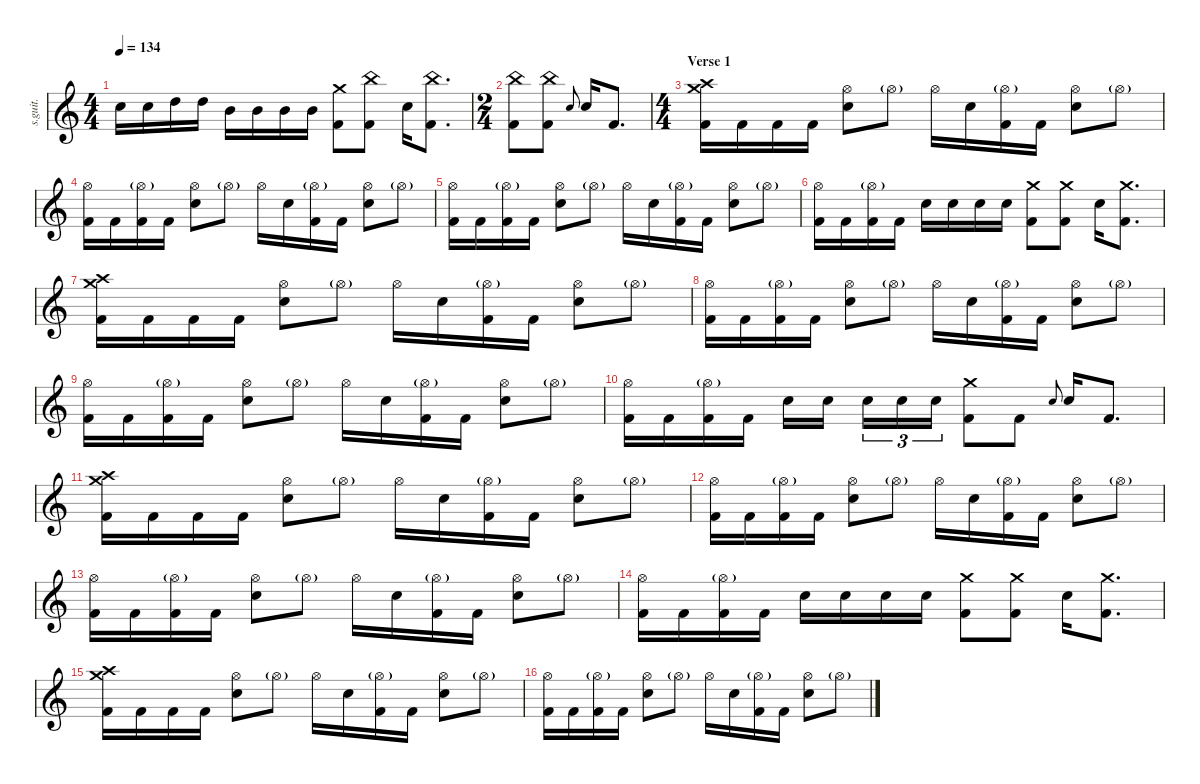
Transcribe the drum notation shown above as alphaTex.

\defaultSystemsLayout 4
\hideDynamics
\bracketExtendMode nobrackets
\track ("Joey Jordison RIP" "s.guit.") {instrument percussion}
\staff {score}
\articulation defaults
\ts (4 4)
\tempo 134
\clef g2
\ks c "Snare (hit) 2".16{dy fff} "Snare (hit) 2".16 "High Tom (hit)".16 "High Tom (hit)".16 "Mid Tom (hit)".16 "Mid Tom (hit)".16 "Mid Tom (hit)".16 "Mid Tom (hit)".16
("Crash medium (hit)" "Kick (hit) 2").8 ("China (hit)" "Kick (hit) 2").8 "Snare (hit) 2".16 ("China (hit)" "Kick (hit) 2").8{d} |
\ts (2 4)
\beaming (8 2 2 2 2)
("China (hit)" "Kick (hit) 2").8 ("China (hit)" "Kick (hit) 2").8 "Snare (hit) 2".8{gr onbeat} "Snare (hit) 2".16 "Kick (hit) 2".8{d} |
\ts (4 4)
\beaming (8 2 2 2 2)
\section ("" "Verse 1")
("Crash high (hit)" "Crash medium (hit)" "Kick (hit) 2").16 "Kick (hit) 2".16 "Kick (hit) 2".16 "Kick (hit) 2".16 ("Hi-Hat (open)" "Snare (hit) 2").8 "Hi-Hat (open)"{g}.8 "Hi-Hat (open)".16 "Snare (hit) 2".16 ("Hi-Hat (open)"{g} "Kick (hit) 2").16 "Kick (hit) 2".16 ("Hi-Hat (open)" "Snare (hit) 2").8 "Hi-Hat (open)"{g}.8 |
("Hi-Hat (open)" "Kick (hit) 2").16 "Kick (hit) 2".16 ("Hi-Hat (open)"{g} "Kick (hit) 2").16 "Kick (hit) 2".16 ("Hi-Hat (open)" "Snare (hit) 2").8 "Hi-Hat (open)"{g}.8 "Hi-Hat (open)".16 "Snare (hit) 2".16 ("Hi-Hat (open)"{g} "Kick (hit) 2").16 "Kick (hit) 2".16 ("Hi-Hat (open)" "Snare (hit) 2").8 "Hi-Hat (open)"{g}.8 |
("Hi-Hat (open)" "Kick (hit) 2").16 "Kick (hit) 2".16 ("Hi-Hat (open)"{g} "Kick (hit) 2").16 "Kick (hit) 2".16 ("Hi-Hat (open)" "Snare (hit) 2").8 "Hi-Hat (open)"{g}.8 "Hi-Hat (open)".16 "Snare (hit) 2".16 ("Hi-Hat (open)"{g} "Kick (hit) 2").16 "Kick (hit) 2".16 ("Hi-Hat (open)" "Snare (hit) 2").8 "Hi-Hat (open)"{g}.8 |
("Hi-Hat (open)" "Kick (hit) 2").16 "Kick (hit) 2".16 ("Hi-Hat (open)"{g} "Kick (hit) 2").16 "Kick (hit) 2".16 "Snare (hit) 2".16 "Snare (hit) 2".16 "Snare (hit) 2".16 "Snare (hit) 2".16 ("Crash medium (hit)" "Kick (hit) 2").8 ("Crash medium (hit)" "Kick (hit) 2").8 "Snare (hit) 2".16 ("Crash medium (hit)" "Kick (hit) 2").8{d} |
("Crash high (hit)" "Crash medium (hit)" "Kick (hit) 2").16 "Kick (hit) 2".16 "Kick (hit) 2".16 "Kick (hit) 2".16 ("Hi-Hat (open)" "Snare (hit) 2").8 "Hi-Hat (open)"{g}.8 "Hi-Hat (open)".16 "Snare (hit) 2".16 ("Hi-Hat (open)"{g} "Kick (hit) 2").16 "Kick (hit) 2".16 ("Hi-Hat (open)" "Snare (hit) 2").8 "Hi-Hat (open)"{g}.8 |
("Hi-Hat (open)" "Kick (hit) 2").16 "Kick (hit) 2".16 ("Hi-Hat (open)"{g} "Kick (hit) 2").16 "Kick (hit) 2".16 ("Hi-Hat (open)" "Snare (hit) 2").8 "Hi-Hat (open)"{g}.8 "Hi-Hat (open)".16 "Snare (hit) 2".16 ("Hi-Hat (open)"{g} "Kick (hit) 2").16 "Kick (hit) 2".16 ("Hi-Hat (open)" "Snare (hit) 2").8 "Hi-Hat (open)"{g}.8 |
("Hi-Hat (open)" "Kick (hit) 2").16 "Kick (hit) 2".16 ("Hi-Hat (open)"{g} "Kick (hit) 2").16 "Kick (hit) 2".16 ("Hi-Hat (open)" "Snare (hit) 2").8 "Hi-Hat (open)"{g}.8 "Hi-Hat (open)".16 "Snare (hit) 2".16 ("Hi-Hat (open)"{g} "Kick (hit) 2").16 "Kick (hit) 2".16 ("Hi-Hat (open)" "Snare (hit) 2").8 "Hi-Hat (open)"{g}.8 |
("Hi-Hat (open)" "Kick (hit) 2").16 "Kick (hit) 2".16 ("Hi-Hat (open)"{g} "Kick (hit) 2").16 "Kick (hit) 2".16 "Snare (hit) 2".16 "Snare (hit) 2".16 "Snare (hit) 2".16{tu (3 2)} "Snare (hit) 2".16{tu (3 2)} "Snare (hit) 2".16{tu (3 2)} ("Crash medium (hit)" "Kick (hit) 2").8 "Kick (hit) 2".8 "Snare (hit) 2".8{gr onbeat} "Snare (hit) 2".16 "Kick (hit) 2".8{d} |
("Crash high (hit)" "Crash medium (hit)" "Kick (hit) 2").16 "Kick (hit) 2".16 "Kick (hit) 2".16 "Kick (hit) 2".16 ("Hi-Hat (open)" "Snare (hit) 2").8 "Hi-Hat (open)"{g}.8 "Hi-Hat (open)".16 "Snare (hit) 2".16 ("Hi-Hat (open)"{g} "Kick (hit) 2").16 "Kick (hit) 2".16 ("Hi-Hat (open)" "Snare (hit) 2").8 "Hi-Hat (open)"{g}.8 |
("Hi-Hat (open)" "Kick (hit) 2").16 "Kick (hit) 2".16 ("Hi-Hat (open)"{g} "Kick (hit) 2").16 "Kick (hit) 2".16 ("Hi-Hat (open)" "Snare (hit) 2").8 "Hi-Hat (open)"{g}.8 "Hi-Hat (open)".16 "Snare (hit) 2".16 ("Hi-Hat (open)"{g} "Kick (hit) 2").16 "Kick (hit) 2".16 ("Hi-Hat (open)" "Snare (hit) 2").8 "Hi-Hat (open)"{g}.8 |
("Hi-Hat (open)" "Kick (hit) 2").16 "Kick (hit) 2".16 ("Hi-Hat (open)"{g} "Kick (hit) 2").16 "Kick (hit) 2".16 ("Hi-Hat (open)" "Snare (hit) 2").8 "Hi-Hat (open)"{g}.8 "Hi-Hat (open)".16 "Snare (hit) 2".16 ("Hi-Hat (open)"{g} "Kick (hit) 2").16 "Kick (hit) 2".16 ("Hi-Hat (open)" "Snare (hit) 2").8 "Hi-Hat (open)"{g}.8 |
("Hi-Hat (open)" "Kick (hit) 2").16 "Kick (hit) 2".16 ("Hi-Hat (open)"{g} "Kick (hit) 2").16 "Kick (hit) 2".16 "Snare (hit) 2".16 "Snare (hit) 2".16 "Snare (hit) 2".16 "Snare (hit) 2".16 ("Crash medium (hit)" "Kick (hit) 2").8 ("Crash medium (hit)" "Kick (hit) 2").8 "Snare (hit) 2".16 ("Crash medium (hit)" "Kick (hit) 2").8{d} |
("Crash high (hit)" "Crash medium (hit)" "Kick (hit) 2").16 "Kick (hit) 2".16 "Kick (hit) 2".16 "Kick (hit) 2".16 ("Hi-Hat (open)" "Snare (hit) 2").8 "Hi-Hat (open)"{g}.8 "Hi-Hat (open)".16 "Snare (hit) 2".16 ("Hi-Hat (open)"{g} "Kick (hit) 2").16 "Kick (hit) 2".16 ("Hi-Hat (open)" "Snare (hit) 2").8 "Hi-Hat (open)"{g}.8 |
("Hi-Hat (open)" "Kick (hit) 2").16 "Kick (hit) 2".16 ("Hi-Hat (open)"{g} "Kick (hit) 2").16 "Kick (hit) 2".16 ("Hi-Hat (open)" "Snare (hit) 2").8 "Hi-Hat (open)"{g}.8 "Hi-Hat (open)".16 "Snare (hit) 2".16 ("Hi-Hat (open)"{g} "Kick (hit) 2").16 "Kick (hit) 2".16 ("Hi-Hat (open)" "Snare (hit) 2").8 "Hi-Hat (open)"{g}.8
